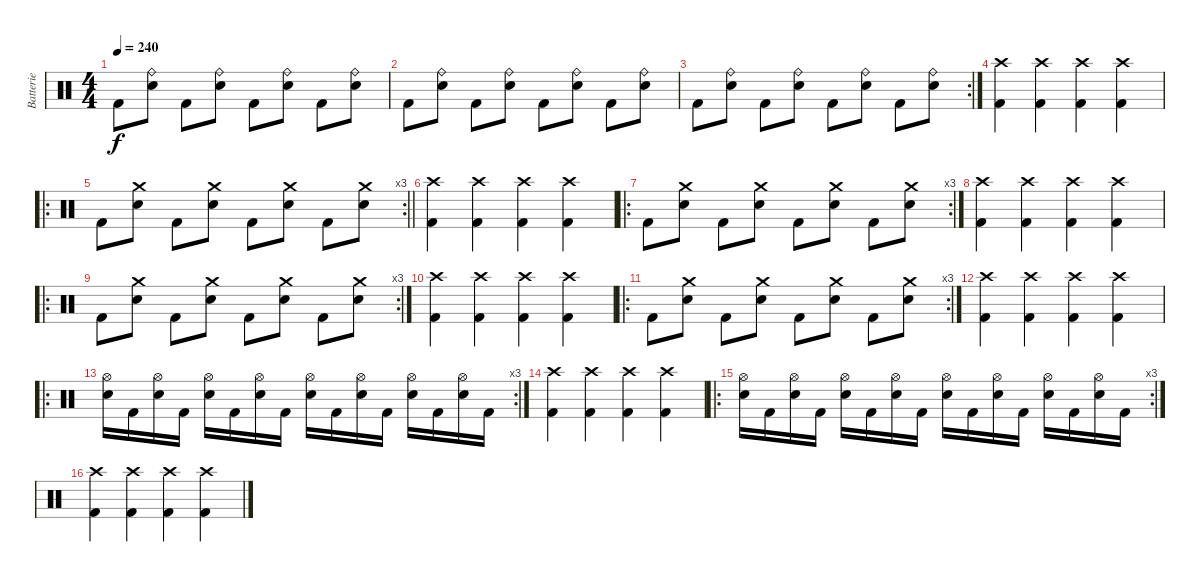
\track ("Batterie" "Batterie") {instrument percussion}
\staff {score}
\articulation defaults
\ts (4 4)
\tempo 240
\clef neutral
\ks c "Kick (hit) 2".8{dy f}
("Ride (bell)" "Snare (hit) 2").8 "Kick (hit) 2".8 ("Ride (bell)" "Snare (hit) 2").8 "Kick (hit) 2".8 ("Ride (bell)" "Snare (hit) 2").8 "Kick (hit) 2".8 ("Ride (bell)" "Snare (hit) 2").8 |
"Kick (hit) 2".8 ("Ride (bell)" "Snare (hit) 2").8 "Kick (hit) 2".8 ("Ride (bell)" "Snare (hit) 2").8 "Kick (hit) 2".8 ("Ride (bell)" "Snare (hit) 2").8 "Kick (hit) 2".8 ("Ride (bell)" "Snare (hit) 2").8 |
\rc 2 "Kick (hit) 2".8
("Ride (bell)" "Snare (hit) 2").8 "Kick (hit) 2".8 ("Ride (bell)" "Snare (hit) 2").8 "Kick (hit) 2".8 ("Ride (bell)" "Snare (hit) 2").8 "Kick (hit) 2".8 ("Ride (bell)" "Snare (hit) 2").8 |
("Crash high (hit)" "Kick (hit) 2").4 ("Crash high (hit)" "Kick (hit) 2").4 ("Crash high (hit)" "Kick (hit) 2").4 ("Crash high (hit)" "Kick (hit) 2").4 |
\ro
\rc 3
\barLineRight lightlight "Kick (hit) 2".8
("Crash medium (hit)" "Snare (hit) 2").8 "Kick (hit) 2".8 ("Crash medium (hit)" "Snare (hit) 2").8 "Kick (hit) 2".8 ("Crash medium (hit)" "Snare (hit) 2").8 "Kick (hit) 2".8 ("Crash medium (hit)" "Snare (hit) 2").8 |
("Crash high (hit)" "Kick (hit) 2").4 ("Crash high (hit)" "Kick (hit) 2").4 ("Crash high (hit)" "Kick (hit) 2").4 ("Crash high (hit)" "Kick (hit) 2").4 |
\ro
\rc 3 "Kick (hit) 2".8
("Crash medium (hit)" "Snare (hit) 2").8 "Kick (hit) 2".8 ("Crash medium (hit)" "Snare (hit) 2").8 "Kick (hit) 2".8 ("Crash medium (hit)" "Snare (hit) 2").8 "Kick (hit) 2".8 ("Crash medium (hit)" "Snare (hit) 2").8 |
("Crash high (hit)" "Kick (hit) 2").4 ("Crash high (hit)" "Kick (hit) 2").4 ("Crash high (hit)" "Kick (hit) 2").4 ("Crash high (hit)" "Kick (hit) 2").4 |
\ro
\rc 3 "Kick (hit) 2".8
("Crash medium (hit)" "Snare (hit) 2").8 "Kick (hit) 2".8 ("Crash medium (hit)" "Snare (hit) 2").8 "Kick (hit) 2".8 ("Crash medium (hit)" "Snare (hit) 2").8 "Kick (hit) 2".8 ("Crash medium (hit)" "Snare (hit) 2").8 |
("Crash high (hit)" "Kick (hit) 2").4 ("Crash high (hit)" "Kick (hit) 2").4 ("Crash high (hit)" "Kick (hit) 2").4 ("Crash high (hit)" "Kick (hit) 2").4 |
\ro
\rc 3 "Kick (hit) 2".8
("Crash medium (hit)" "Snare (hit) 2").8 "Kick (hit) 2".8 ("Crash medium (hit)" "Snare (hit) 2").8 "Kick (hit) 2".8 ("Crash medium (hit)" "Snare (hit) 2").8 "Kick (hit) 2".8 ("Crash medium (hit)" "Snare (hit) 2").8 |
("Crash high (hit)" "Kick (hit) 2").4 ("Crash high (hit)" "Kick (hit) 2").4 ("Crash high (hit)" "Kick (hit) 2").4 ("Crash high (hit)" "Kick (hit) 2").4 |
\ro
\rc 3
("Hi-Hat (open)" "Snare (hit) 2").16 "Kick (hit) 2".16 ("Hi-Hat (open)" "Snare (hit) 2").16 "Kick (hit) 2".16 ("Hi-Hat (open)" "Snare (hit) 2").16 "Kick (hit) 2".16 ("Hi-Hat (open)" "Snare (hit) 2").16 "Kick (hit) 2".16 ("Hi-Hat (open)" "Snare (hit) 2").16 "Kick (hit) 2".16 ("Hi-Hat (open)" "Snare (hit) 2").16 "Kick (hit) 2".16 ("Hi-Hat (open)" "Snare (hit) 2").16 "Kick (hit) 2".16 ("Hi-Hat (open)" "Snare (hit) 2").16 "Kick (hit) 2".16 |
("Crash high (hit)" "Kick (hit) 2").4 ("Crash high (hit)" "Kick (hit) 2").4 ("Crash high (hit)" "Kick (hit) 2").4 ("Crash high (hit)" "Kick (hit) 2").4 |
\ro
\rc 3
("Hi-Hat (open)" "Snare (hit) 2").16 "Kick (hit) 2".16 ("Hi-Hat (open)" "Snare (hit) 2").16 "Kick (hit) 2".16 ("Hi-Hat (open)" "Snare (hit) 2").16 "Kick (hit) 2".16 ("Hi-Hat (open)" "Snare (hit) 2").16 "Kick (hit) 2".16 ("Hi-Hat (open)" "Snare (hit) 2").16 "Kick (hit) 2".16 ("Hi-Hat (open)" "Snare (hit) 2").16 "Kick (hit) 2".16 ("Hi-Hat (open)" "Snare (hit) 2").16 "Kick (hit) 2".16 ("Hi-Hat (open)" "Snare (hit) 2").16 "Kick (hit) 2".16 |
("Crash high (hit)" "Kick (hit) 2").4 ("Crash high (hit)" "Kick (hit) 2").4 ("Crash high (hit)" "Kick (hit) 2").4 ("Crash high (hit)" "Kick (hit) 2").4
